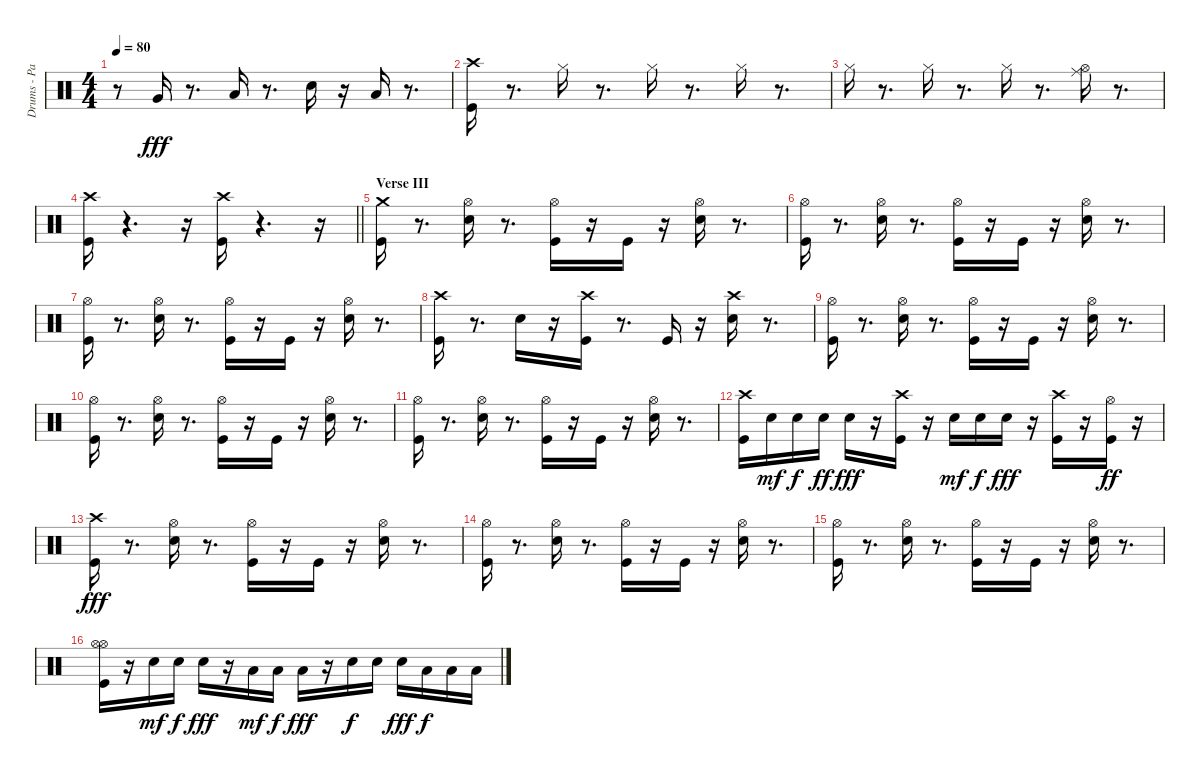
\track ("Drums - Paice" "Drums - Pa") {instrument percussion}
\staff {score}
\articulation defaults
\ts (4 4)
\tempo 80
\clef neutral
\ks c
r.8{dy fff} "Very Low Tom (hit)".16 r.8{d} "Low Tom (hit)".16 r.8{d} "Snare (hit) 2".16 r.16 "Low Tom (hit)".16 r.8{d} |
("Crash high (hit)" "Kick (hit)").16 r.8{d} "Hi-Hat (closed)".16 r.8{d} "Hi-Hat (closed)".16 r.8{d} "Hi-Hat (closed)".16 r.8{d} |
"Hi-Hat (closed)".16 r.8{d} "Hi-Hat (closed)".16 r.8{d} "Hi-Hat (closed)".16 r.8{d} ("Hi-Hat (open)" "Ride (middle)").16 r.8{d} |
\barLineRight lightlight
("Crash high (hit)" "Kick (hit)").16 r.4{d} r.16 ("Crash high (hit)" "Kick (hit)").16 r.4{d} r.16 |
\section ("" "Verse III")
("Kick (hit)" "Crash medium (hit)").16 r.8{d} ("Snare (hit) 2" "Hi-Hat (open)").16 r.8{d} ("Hi-Hat (open)" "Kick (hit)").16 r.16 "Kick (hit)".16 r.16 ("Snare (hit) 2" "Hi-Hat (open)").16 r.8{d} |
("Kick (hit)" "Hi-Hat (open)").16 r.8{d} ("Hi-Hat (open)" "Snare (hit) 2").16 r.8{d} ("Hi-Hat (open)" "Kick (hit)").16 r.16 "Kick (hit)".16 r.16 ("Snare (hit) 2" "Hi-Hat (open)").16 r.8{d} |
("Hi-Hat (open)" "Kick (hit)").16 r.8{d} ("Snare (hit) 2" "Hi-Hat (open)").16 r.8{d} ("Kick (hit)" "Hi-Hat (open)").16 r.16 "Kick (hit)".16 r.16 ("Snare (hit) 2" "Hi-Hat (open)").16 r.8{d} |
("Kick (hit)" "Crash high (hit)").16 r.8{d} "Snare (hit) 2".16 r.16 ("Crash high (hit)" "Kick (hit)").16 r.8{d} "Kick (hit)".16 r.16 ("Crash high (hit)" "Snare (hit) 2").16 r.8{d} |
("Kick (hit)" "Hi-Hat (open)").16 r.8{d} ("Snare (hit) 2" "Hi-Hat (open)").16 r.8{d} ("Hi-Hat (open)" "Kick (hit)").16 r.16 "Kick (hit)".16 r.16 ("Hi-Hat (open)" "Snare (hit) 2").16 r.8{d} |
("Hi-Hat (open)" "Kick (hit)").16 r.8{d} ("Hi-Hat (open)" "Snare (hit) 2").16 r.8{d} ("Hi-Hat (open)" "Kick (hit)").16 r.16 "Kick (hit)".16 r.16 ("Snare (hit) 2" "Hi-Hat (open)").16 r.8{d} |
("Hi-Hat (open)" "Kick (hit)").16 r.8{d} ("Hi-Hat (open)" "Snare (hit) 2").16 r.8{d} ("Kick (hit)" "Hi-Hat (open)").16 r.16 "Kick (hit)".16 r.16 ("Hi-Hat (open)" "Snare (hit) 2").16 r.8{d} |
("Crash high (hit)" "Kick (hit)").16 "Snare (hit) 2".16{dy mf} "Snare (hit) 2".16{dy f} "Snare (hit) 2".16{dy ff} "Snare (hit) 2".16{dy fff} r.16 ("Crash high (hit)" "Kick (hit)").16 r.16 "Snare (hit) 2".16{dy mf} "Snare (hit) 2".16{dy f} "Snare (hit) 2".16{dy fff} r.16 ("Kick (hit)" "Crash high (hit)").16 r.16 ("Kick (hit)" "Hi-Hat (open)").16{dy ff} r.16 |
("Crash high (hit)" "Kick (hit)").16{dy fff} r.8{d} ("Hi-Hat (open)" "Snare (hit) 2").16 r.8{d} ("Hi-Hat (open)" "Kick (hit)").16 r.16 "Kick (hit)".16 r.16 ("Hi-Hat (open)" "Snare (hit) 2").16 r.8{d} |
("Hi-Hat (open)" "Kick (hit)").16 r.8{d} ("Snare (hit) 2" "Hi-Hat (open)").16 r.8{d} ("Kick (hit)" "Hi-Hat (open)").16 r.16 "Kick (hit)".16 r.16 ("Snare (hit) 2" "Hi-Hat (open)").16 r.8{d} |
("Hi-Hat (open)" "Kick (hit)").16 r.8{d} ("Snare (hit) 2" "Hi-Hat (open)").16 r.8{d} ("Hi-Hat (open)" "Kick (hit)").16 r.16 "Kick (hit)".16 r.16 ("Hi-Hat (open)" "Snare (hit) 2").16 r.8{d} |
("Hi-Hat (open)" "Kick (hit)" "Hi-Hat (open)").16 r.16 "Snare (hit) 2".16{dy mf} "Snare (hit) 2".16{dy f} "Snare (hit) 2".16{dy fff} r.16 "Low Tom (hit)".16{dy mf} "Low Tom (hit)".16{dy f} "Low Tom (hit)".16{dy fff} r.16 "Snare (hit) 2".16{dy f} "Snare (hit) 2".16 "Snare (hit) 2".16{dy fff} "Low Tom (hit)".16{dy f} "Low Tom (hit)".16 "Low Tom (hit)".16
